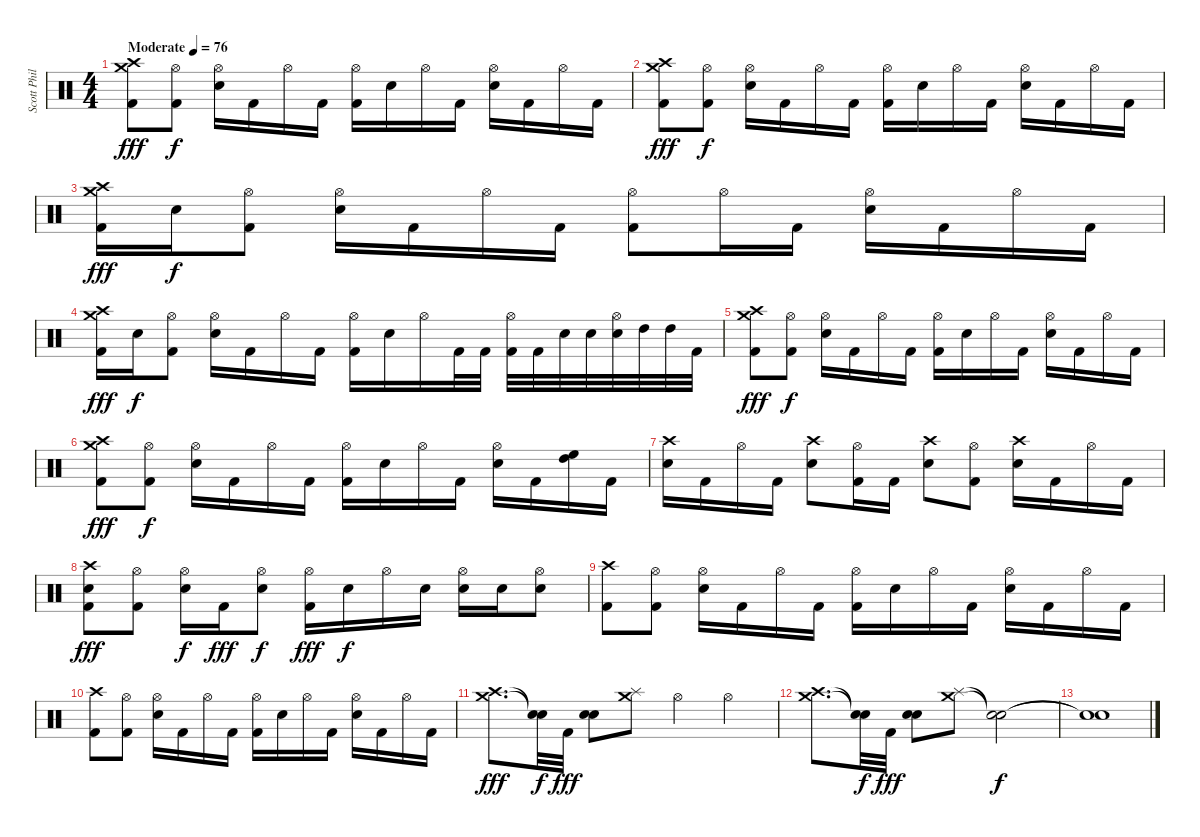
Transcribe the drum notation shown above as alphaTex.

\track ("Scott Phillips" "Scott Phil") {instrument percussion}
\staff {score}
\articulation defaults
\ts (4 4)
\tempo (76 "Moderate")
\clef neutral
\ks c
("Crash high (hit)" "Crash medium (hit)" "Kick (hit) 2").8{dy fff} ("Hi-Hat (open)" "Kick (hit) 2").8{dy f} ("Hi-Hat (open)" "Electric Snare (hit)").16 "Kick (hit) 2".16 "Hi-Hat (open)".16 "Kick (hit) 2".16 ("Hi-Hat (open)" "Kick (hit) 2").16 "Electric Snare (hit)".16 "Hi-Hat (open)".16 "Kick (hit) 2".16 ("Hi-Hat (open)" "Electric Snare (hit)").16 "Kick (hit) 2".16 "Hi-Hat (open)".16 "Kick (hit) 2".16 |
("Crash high (hit)" "Crash medium (hit)" "Kick (hit) 2").8{dy fff} ("Hi-Hat (open)" "Kick (hit) 2").8{dy f} ("Hi-Hat (open)" "Electric Snare (hit)").16 "Kick (hit) 2".16 "Hi-Hat (open)".16 "Kick (hit) 2".16 ("Hi-Hat (open)" "Kick (hit) 2").16 "Electric Snare (hit)".16 "Hi-Hat (open)".16 "Kick (hit) 2".16 ("Hi-Hat (open)" "Electric Snare (hit)").16 "Kick (hit) 2".16 "Hi-Hat (open)".16 "Kick (hit) 2".16 |
("Crash high (hit)" "Crash medium (hit)" "Kick (hit) 2").16{dy fff} "Electric Snare (hit)".16{dy f} ("Hi-Hat (open)" "Kick (hit) 2").8 ("Hi-Hat (open)" "Electric Snare (hit)").16 "Kick (hit) 2".16 "Hi-Hat (open)".16 "Kick (hit) 2".16 ("Hi-Hat (open)" "Kick (hit) 2").8 "Hi-Hat (open)".16 "Kick (hit) 2".16 ("Hi-Hat (open)" "Electric Snare (hit)").16 "Kick (hit) 2".16 "Hi-Hat (open)".16 "Kick (hit) 2".16 |
("Crash high (hit)" "Crash medium (hit)" "Kick (hit) 2").16{dy fff} "Electric Snare (hit)".16{dy f} ("Hi-Hat (open)" "Kick (hit) 2").8 ("Hi-Hat (open)" "Electric Snare (hit)").16 "Kick (hit) 2".16 "Hi-Hat (open)".16 "Kick (hit) 2".16 ("Hi-Hat (open)" "Kick (hit) 2").16 "Electric Snare (hit)".16 "Hi-Hat (open)".16 "Kick (hit) 2".32 "Kick (hit) 2".32 ("Hi-Hat (open)" "Kick (hit) 2").32 "Kick (hit) 2".32 "Electric Snare (hit)".32 "Electric Snare (hit)".32 ("Hi-Hat (open)" "Electric Snare (hit)").32 "High Tom (hit)".32 "High Tom (hit)".32 "Kick (hit) 2".32 |
("Crash high (hit)" "Crash medium (hit)" "Kick (hit) 2").8{dy fff} ("Hi-Hat (open)" "Kick (hit) 2").8{dy f} ("Hi-Hat (open)" "Electric Snare (hit)").16 "Kick (hit) 2".16 "Hi-Hat (open)".16 "Kick (hit) 2".16 ("Hi-Hat (open)" "Kick (hit) 2").16 "Electric Snare (hit)".16 "Hi-Hat (open)".16 "Kick (hit) 2".16 ("Hi-Hat (open)" "Electric Snare (hit)").16 "Kick (hit) 2".16 "Hi-Hat (open)".16 "Kick (hit) 2".16 |
("Crash high (hit)" "Crash medium (hit)" "Kick (hit) 2").8{dy fff} ("Hi-Hat (open)" "Kick (hit) 2").8{dy f} ("Hi-Hat (open)" "Electric Snare (hit)").16 "Kick (hit) 2".16 "Hi-Hat (open)".16 "Kick (hit) 2".16 ("Hi-Hat (open)" "Kick (hit) 2").16 "Electric Snare (hit)".16 "Hi-Hat (open)".16 "Kick (hit) 2".16 ("Hi-Hat (open)" "Electric Snare (hit)").16 "Kick (hit) 2".16 ("High Floor Tom (hit)" "High Tom (hit)").16 "Kick (hit) 2".16 |
("Crash high (hit)" "Electric Snare (hit)").16 "Kick (hit) 2".16 "Hi-Hat (open)".16 "Kick (hit) 2".16 ("Crash high (hit)" "Electric Snare (hit)").8 ("Hi-Hat (open)" "Kick (hit) 2").16 "Kick (hit) 2".16 ("Crash high (hit)" "Electric Snare (hit)").8 ("Hi-Hat (open)" "Kick (hit) 2").8 ("Crash high (hit)" "Electric Snare (hit)").16 "Kick (hit) 2".16 "Hi-Hat (open)".16 "Kick (hit) 2".16 |
("Crash high (hit)" "Electric Snare (hit)" "Kick (hit) 2").8{dy fff} ("Hi-Hat (open)" "Kick (hit) 2").8 ("Hi-Hat (open)" "Electric Snare (hit)").16{dy f} "Kick (hit) 2".16{dy fff} ("Hi-Hat (open)" "Electric Snare (hit)").8{dy f} ("Hi-Hat (open)" "Kick (hit) 2").16{dy fff} "Electric Snare (hit)".16{dy f} "Hi-Hat (open)".16 "Electric Snare (hit)".16 ("Hi-Hat (open)" "Electric Snare (hit)").16 "Electric Snare (hit)".16 ("Hi-Hat (open)" "Electric Snare (hit)").8 |
("Crash high (hit)" "Kick (hit) 2").8 ("Hi-Hat (open)" "Kick (hit) 2").8 ("Hi-Hat (open)" "Electric Snare (hit)").16 "Kick (hit) 2".16 "Hi-Hat (open)".16 "Kick (hit) 2".16 ("Hi-Hat (open)" "Kick (hit) 2").16 "Electric Snare (hit)".16 "Hi-Hat (open)".16 "Kick (hit) 2".16 ("Hi-Hat (open)" "Electric Snare (hit)").16 "Kick (hit) 2".16 "Hi-Hat (open)".16 "Kick (hit) 2".16 |
("Crash high (hit)" "Kick (hit) 2").8 ("Hi-Hat (open)" "Kick (hit) 2").8 ("Hi-Hat (open)" "Electric Snare (hit)").16 "Kick (hit) 2".16 "Hi-Hat (open)".16 "Kick (hit) 2".16 ("Hi-Hat (open)" "Kick (hit) 2").16 "Electric Snare (hit)".16 "Hi-Hat (open)".16 "Kick (hit) 2".16 ("Hi-Hat (open)" "Electric Snare (hit)").16 "Kick (hit) 2".16 "Hi-Hat (open)".16 "Kick (hit) 2".16 |
("Crash high (hit)" "Crash medium (hit)").8{d dy fff} ("Snare (hit)"{t} "Snare (hit)"{t}).32{dy f} "Kick (hit) 2".32{dy fff} ("Electric Snare (hit)" "Electric Snare (hit)").8 ("Crash medium (hit)" "Splash (hit)").8 "Hi-Hat (open)".4 "Hi-Hat (open)".4 |
("Crash high (hit)" "Crash medium (hit)").8{d} ("Snare (hit)"{t} "Snare (hit)"{t}).32{dy f} "Kick (hit) 2".32{dy fff} ("Electric Snare (hit)" "Electric Snare (hit)").8 ("Crash medium (hit)" "Splash (hit)").8 ("Snare (hit)"{t} "Snare (hit)"{t}).2{dy f volume 0} |
("Snare (hit)"{t} "Snare (hit)"{t}).1
